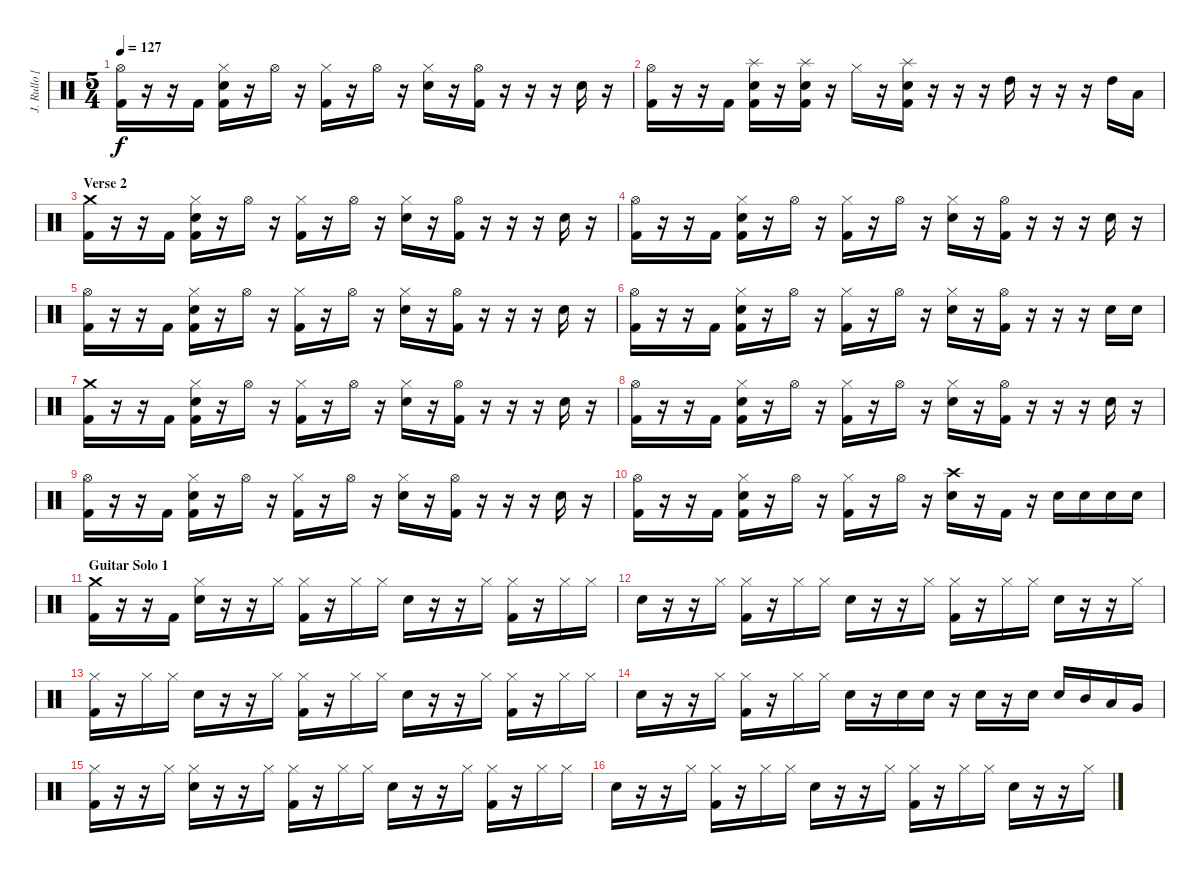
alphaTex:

\track ("J. Rullo [Drums]" "J. Rullo [") {instrument percussion}
\staff {score}
\articulation defaults
\ts (5 4)
\tempo 127
\clef neutral
\ks c
("Hi-Hat (open)" "Kick (hit) 2").16{dy f} r.16 r.16 "Kick (hit) 2".16 ("Hi-Hat (closed)" "Electric Snare (hit)" "Kick (hit) 2").16 r.16 "Hi-Hat (open)".16 r.16 ("Hi-Hat (closed)" "Kick (hit) 2").16 r.16 "Hi-Hat (open)".16 r.16 ("Hi-Hat (closed)" "Electric Snare (hit)").16 r.16 ("Hi-Hat (open)" "Kick (hit) 2").16 r.16 r.16 r.16 "Electric Snare (hit)".16 r.16 |
("Hi-Hat (open)" "Kick (hit) 2").16 r.16 r.16 "Kick (hit) 2".16 ("Splash (hit)" "Electric Snare (hit)" "Kick (hit) 2").16 r.16 ("Splash (hit)" "Electric Snare (hit)" "Kick (hit) 2").16 r.16 "Hi-Hat (closed)".16 r.16 ("Splash (hit)" "Electric Snare (hit)" "Kick (hit) 2").16 r.16 r.16 r.16 "High Tom (hit)".16 r.16 r.16 r.16 "High Tom (hit)".16 "Low Tom (hit)".16 |
\section ("" "Verse 2")
("Crash medium (hit)" "Kick (hit) 2").16 r.16 r.16 "Kick (hit) 2".16 ("Hi-Hat (closed)" "Electric Snare (hit)" "Kick (hit) 2").16 r.16 "Hi-Hat (open)".16 r.16 ("Hi-Hat (closed)" "Kick (hit) 2").16 r.16 "Hi-Hat (open)".16 r.16 ("Hi-Hat (closed)" "Electric Snare (hit)").16 r.16 ("Hi-Hat (open)" "Kick (hit) 2").16 r.16 r.16 r.16 "Electric Snare (hit)".16 r.16 |
("Hi-Hat (open)" "Kick (hit) 2").16 r.16 r.16 "Kick (hit) 2".16 ("Hi-Hat (closed)" "Electric Snare (hit)" "Kick (hit) 2").16 r.16 "Hi-Hat (open)".16 r.16 ("Hi-Hat (closed)" "Kick (hit) 2").16 r.16 "Hi-Hat (open)".16 r.16 ("Hi-Hat (closed)" "Electric Snare (hit)").16 r.16 ("Hi-Hat (open)" "Kick (hit) 2").16 r.16 r.16 r.16 "Electric Snare (hit)".16 r.16 |
("Hi-Hat (open)" "Kick (hit) 2").16 r.16 r.16 "Kick (hit) 2".16 ("Hi-Hat (closed)" "Electric Snare (hit)" "Kick (hit) 2").16 r.16 "Hi-Hat (open)".16 r.16 ("Hi-Hat (closed)" "Kick (hit) 2").16 r.16 "Hi-Hat (open)".16 r.16 ("Hi-Hat (closed)" "Electric Snare (hit)").16 r.16 ("Hi-Hat (open)" "Kick (hit) 2").16 r.16 r.16 r.16 "Electric Snare (hit)".16 r.16 |
("Hi-Hat (open)" "Kick (hit) 2").16 r.16 r.16 "Kick (hit) 2".16 ("Hi-Hat (closed)" "Electric Snare (hit)" "Kick (hit) 2").16 r.16 "Hi-Hat (open)".16 r.16 ("Hi-Hat (closed)" "Kick (hit) 2").16 r.16 "Hi-Hat (open)".16 r.16 ("Hi-Hat (closed)" "Electric Snare (hit)").16 r.16 ("Hi-Hat (open)" "Kick (hit) 2").16 r.16 r.16 r.16 "Electric Snare (hit)".16 "Electric Snare (hit)".16 |
("Crash medium (hit)" "Kick (hit) 2").16 r.16 r.16 "Kick (hit) 2".16 ("Hi-Hat (closed)" "Electric Snare (hit)" "Kick (hit) 2").16 r.16 "Hi-Hat (open)".16 r.16 ("Hi-Hat (closed)" "Kick (hit) 2").16 r.16 "Hi-Hat (open)".16 r.16 ("Hi-Hat (closed)" "Electric Snare (hit)").16 r.16 ("Hi-Hat (open)" "Kick (hit) 2").16 r.16 r.16 r.16 "Electric Snare (hit)".16 r.16 |
("Hi-Hat (open)" "Kick (hit) 2").16 r.16 r.16 "Kick (hit) 2".16 ("Hi-Hat (closed)" "Electric Snare (hit)" "Kick (hit) 2").16 r.16 "Hi-Hat (open)".16 r.16 ("Hi-Hat (closed)" "Kick (hit) 2").16 r.16 "Hi-Hat (open)".16 r.16 ("Hi-Hat (closed)" "Electric Snare (hit)").16 r.16 ("Hi-Hat (open)" "Kick (hit) 2").16 r.16 r.16 r.16 "Electric Snare (hit)".16 r.16 |
("Hi-Hat (open)" "Kick (hit) 2").16 r.16 r.16 "Kick (hit) 2".16 ("Hi-Hat (closed)" "Electric Snare (hit)" "Kick (hit) 2").16 r.16 "Hi-Hat (open)".16 r.16 ("Hi-Hat (closed)" "Kick (hit) 2").16 r.16 "Hi-Hat (open)".16 r.16 ("Hi-Hat (closed)" "Electric Snare (hit)").16 r.16 ("Hi-Hat (open)" "Kick (hit) 2").16 r.16 r.16 r.16 "Electric Snare (hit)".16 r.16 |
("Hi-Hat (open)" "Kick (hit) 2").16 r.16 r.16 "Kick (hit) 2".16 ("Hi-Hat (closed)" "Electric Snare (hit)" "Kick (hit) 2").16 r.16 "Hi-Hat (open)".16 r.16 ("Hi-Hat (closed)" "Kick (hit) 2").16 r.16 "Hi-Hat (open)".16 r.16 ("Crash high (hit)" "Electric Snare (hit)").16 r.16 "Kick (hit) 2".16 r.16 "Electric Snare (hit)".16 "Electric Snare (hit)".16 "Electric Snare (hit)".16 "Electric Snare (hit)".16 |
\section ("" "Guitar Solo 1")
("Crash medium (hit)" "Kick (hit) 2").16 r.16 r.16 "Kick (hit) 2".16 ("Hi-Hat (closed)" "Electric Snare (hit)").16 r.16 r.16 "Hi-Hat (closed)".16 ("Hi-Hat (closed)" "Kick (hit) 2").16 r.16 "Hi-Hat (closed)".16 "Hi-Hat (closed)".16 "Electric Snare (hit)".16 r.16 r.16 "Hi-Hat (closed)".16 ("Hi-Hat (closed)" "Kick (hit) 2").16 r.16 "Hi-Hat (closed)".16 "Hi-Hat (closed)".16 |
"Electric Snare (hit)".16 r.16 r.16 "Hi-Hat (closed)".16 ("Hi-Hat (closed)" "Kick (hit) 2").16 r.16 "Hi-Hat (closed)".16 "Hi-Hat (closed)".16 "Electric Snare (hit)".16 r.16 r.16 "Hi-Hat (closed)".16 ("Hi-Hat (closed)" "Kick (hit) 2").16 r.16 "Hi-Hat (closed)".16 "Hi-Hat (closed)".16 "Electric Snare (hit)".16 r.16 r.16 "Hi-Hat (closed)".16 |
("Hi-Hat (closed)" "Kick (hit) 2").16 r.16 "Hi-Hat (closed)".16 "Hi-Hat (closed)".16 "Electric Snare (hit)".16 r.16 r.16 "Hi-Hat (closed)".16 ("Hi-Hat (closed)" "Kick (hit) 2").16 r.16 "Hi-Hat (closed)".16 "Hi-Hat (closed)".16 "Electric Snare (hit)".16 r.16 r.16 "Hi-Hat (closed)".16 ("Hi-Hat (closed)" "Kick (hit) 2").16 r.16 "Hi-Hat (closed)".16 "Hi-Hat (closed)".16 |
"Electric Snare (hit)".16 r.16 r.16 "Hi-Hat (closed)".16 ("Hi-Hat (closed)" "Kick (hit) 2").16 r.16 "Hi-Hat (closed)".16 "Hi-Hat (closed)".16 "Electric Snare (hit)".16 r.16 "Electric Snare (hit)".16 "Electric Snare (hit)".16 r.16 "Electric Snare (hit)".16 r.16 "Electric Snare (hit)".16 "Electric Snare (hit)".16 "Mid Tom (hit)".16 "Low Tom (hit)".16 "Very Low Tom (hit)".16 |
("Hi-Hat (closed)" "Kick (hit) 2").16 r.16 r.16 "Hi-Hat (closed)".16 ("Hi-Hat (closed)" "Electric Snare (hit)").16 r.16 r.16 "Hi-Hat (closed)".16 ("Hi-Hat (closed)" "Kick (hit) 2").16 r.16 "Hi-Hat (closed)".16 "Hi-Hat (closed)".16 "Electric Snare (hit)".16 r.16 r.16 "Hi-Hat (closed)".16 ("Hi-Hat (closed)" "Kick (hit) 2").16 r.16 "Hi-Hat (closed)".16 "Hi-Hat (closed)".16 |
"Electric Snare (hit)".16 r.16 r.16 "Hi-Hat (closed)".16 ("Hi-Hat (closed)" "Kick (hit) 2").16 r.16 "Hi-Hat (closed)".16 "Hi-Hat (closed)".16 "Electric Snare (hit)".16 r.16 r.16 "Hi-Hat (closed)".16 ("Hi-Hat (closed)" "Kick (hit) 2").16 r.16 "Hi-Hat (closed)".16 "Hi-Hat (closed)".16 "Electric Snare (hit)".16 r.16 r.16 "Hi-Hat (closed)".16
